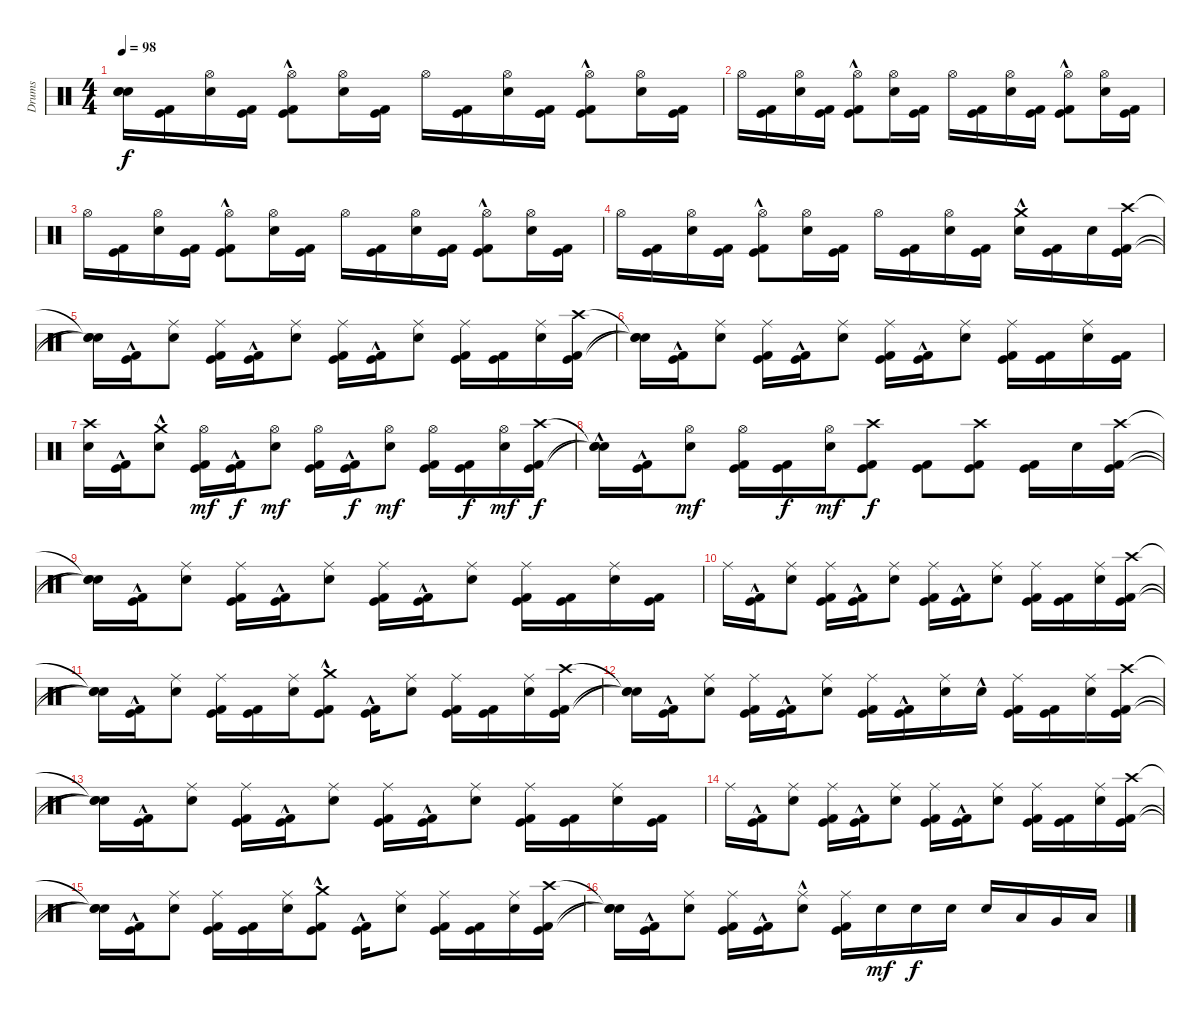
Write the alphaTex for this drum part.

\track ("Drums" "Drums") {instrument percussion}
\staff {score}
\articulation defaults
\ts (4 4)
\tempo 98
\clef neutral
\ks c
("Snare (hit)"{t} "Snare (hit)"{t} "Snare (hit)"{t}).16{dy f} ("Kick (hit)" "Kick (hit) 2").16 ("Electric Snare (hit)" "Hi-Hat (open)").16 ("Kick (hit)" "Kick (hit) 2").16 ("Kick (hit)"{hac} "Kick (hit) 2"{hac} "Hi-Hat (open)").8 ("Electric Snare (hit)" "Hi-Hat (open)").16 ("Kick (hit)" "Kick (hit) 2").16 "Hi-Hat (open)".16 ("Kick (hit)" "Kick (hit) 2").16 ("Electric Snare (hit)" "Hi-Hat (open)").16 ("Kick (hit)" "Kick (hit) 2").16 ("Kick (hit)"{hac} "Kick (hit) 2"{hac} "Hi-Hat (open)").8 ("Electric Snare (hit)" "Hi-Hat (open)").16 ("Kick (hit)" "Kick (hit) 2").16 |
"Hi-Hat (open)".16 ("Kick (hit)" "Kick (hit) 2").16 ("Electric Snare (hit)" "Hi-Hat (open)").16 ("Kick (hit)" "Kick (hit) 2").16 ("Kick (hit)"{hac} "Kick (hit) 2"{hac} "Hi-Hat (open)").8 ("Electric Snare (hit)" "Hi-Hat (open)").16 ("Kick (hit)" "Kick (hit) 2").16 "Hi-Hat (open)".16 ("Kick (hit)" "Kick (hit) 2").16 ("Electric Snare (hit)" "Hi-Hat (open)").16 ("Kick (hit)" "Kick (hit) 2").16 ("Kick (hit)"{hac} "Kick (hit) 2"{hac} "Hi-Hat (open)").8 ("Electric Snare (hit)" "Hi-Hat (open)").16 ("Kick (hit)" "Kick (hit) 2").16 |
"Hi-Hat (open)".16 ("Kick (hit)" "Kick (hit) 2").16 ("Electric Snare (hit)" "Hi-Hat (open)").16 ("Kick (hit)" "Kick (hit) 2").16 ("Kick (hit)"{hac} "Kick (hit) 2"{hac} "Hi-Hat (open)").8 ("Electric Snare (hit)" "Hi-Hat (open)").16 ("Kick (hit)" "Kick (hit) 2").16 "Hi-Hat (open)".16 ("Kick (hit)" "Kick (hit) 2").16 ("Electric Snare (hit)" "Hi-Hat (open)").16 ("Kick (hit)" "Kick (hit) 2").16 ("Kick (hit)"{hac} "Kick (hit) 2"{hac} "Hi-Hat (open)").8 ("Electric Snare (hit)" "Hi-Hat (open)").16 ("Kick (hit)" "Kick (hit) 2").16 |
"Hi-Hat (open)".16 ("Kick (hit)" "Kick (hit) 2").16 ("Electric Snare (hit)" "Hi-Hat (open)").16 ("Kick (hit)" "Kick (hit) 2").16 ("Kick (hit)"{hac} "Kick (hit) 2"{hac} "Hi-Hat (open)").8 ("Electric Snare (hit)" "Hi-Hat (open)").16 ("Kick (hit)" "Kick (hit) 2").16 "Hi-Hat (open)".16 ("Kick (hit)" "Kick (hit) 2").16 ("Electric Snare (hit)" "Hi-Hat (open)").16 ("Kick (hit)" "Kick (hit) 2").16 ("Electric Snare (hit)" "Crash medium (hit)"{hac}).16 ("Kick (hit)" "Kick (hit) 2").16 "Electric Snare (hit)".16 ("Kick (hit)" "Kick (hit) 2" "Crash high (hit)").16 |
("Snare (hit)"{t} "Snare (hit)"{t} "Snare (hit)"{t}).16 ("Kick (hit)"{hac} "Kick (hit) 2"{hac}).16 ("Electric Snare (hit)" "Ride (middle)").8 ("Kick (hit)" "Kick (hit) 2" "Ride (middle)").16 ("Kick (hit)"{hac} "Kick (hit) 2"{hac}).16 ("Electric Snare (hit)" "Ride (middle)").8 ("Kick (hit)" "Kick (hit) 2" "Ride (middle)").16 ("Kick (hit)"{hac} "Kick (hit) 2"{hac}).16 ("Electric Snare (hit)" "Ride (middle)").8 ("Kick (hit)" "Kick (hit) 2" "Ride (middle)").16 ("Kick (hit)" "Kick (hit) 2").16 ("Electric Snare (hit)" "Ride (middle)").16 ("Kick (hit)" "Kick (hit) 2" "Crash high (hit)").16 |
("Snare (hit)"{t} "Snare (hit)"{t} "Snare (hit)"{t}).16 ("Kick (hit)"{hac} "Kick (hit) 2"{hac}).16 ("Electric Snare (hit)" "Ride (middle)").8 ("Kick (hit)" "Kick (hit) 2" "Ride (middle)").16 ("Kick (hit)"{hac} "Kick (hit) 2"{hac}).16 ("Electric Snare (hit)" "Ride (middle)").8 ("Kick (hit)" "Kick (hit) 2" "Ride (middle)").16 ("Kick (hit)"{hac} "Kick (hit) 2"{hac}).16 ("Electric Snare (hit)" "Ride (middle)").8 ("Kick (hit)" "Kick (hit) 2" "Ride (middle)").16 ("Kick (hit)" "Kick (hit) 2").16 ("Electric Snare (hit)" "Ride (middle)").16 ("Kick (hit)" "Kick (hit) 2").16 |
("Electric Snare (hit)" "Crash high (hit)").16 ("Kick (hit)"{hac} "Kick (hit) 2"{hac}).16 ("Electric Snare (hit)" "Crash medium (hit)"{hac}).8 ("Kick (hit)" "Kick (hit) 2" "Hi-Hat (open)").16{dy mf} ("Kick (hit)"{hac} "Kick (hit) 2"{hac}).16{dy f} ("Electric Snare (hit)" "Hi-Hat (open)").8{dy mf} ("Kick (hit)" "Kick (hit) 2" "Hi-Hat (open)").16 ("Kick (hit)"{hac} "Kick (hit) 2"{hac}).16{dy f} ("Electric Snare (hit)" "Hi-Hat (open)").8{dy mf} ("Kick (hit)" "Kick (hit) 2" "Hi-Hat (open)").16 ("Kick (hit)" "Kick (hit) 2").16{dy f} ("Electric Snare (hit)" "Hi-Hat (open)").16{dy mf} ("Kick (hit)" "Kick (hit) 2" "Crash high (hit)").16{dy f} |
("Snare (hit)"{t} "Snare (hit)"{t} "Snare (hit)"{hac t}).16 ("Kick (hit)"{hac} "Kick (hit) 2"{hac}).16 ("Electric Snare (hit)" "Hi-Hat (open)").8{dy mf} ("Kick (hit)" "Kick (hit) 2" "Hi-Hat (open)").16 ("Kick (hit)" "Kick (hit) 2").16{dy f} ("Electric Snare (hit)" "Hi-Hat (open)").16{dy mf} ("Kick (hit)" "Kick (hit) 2" "Crash high (hit)").8{dy f} ("Kick (hit)" "Kick (hit) 2").8 ("Kick (hit)" "Kick (hit) 2" "Crash high (hit)").8 ("Kick (hit)" "Kick (hit) 2").16 "Electric Snare (hit)".16 ("Kick (hit)" "Kick (hit) 2" "Crash high (hit)").16 |
("Snare (hit)"{t} "Snare (hit)"{t} "Snare (hit)"{t}).16 ("Kick (hit)"{hac} "Kick (hit) 2"{hac}).16 ("Electric Snare (hit)" "Ride (middle)").8 ("Kick (hit)" "Kick (hit) 2" "Ride (middle)").16 ("Kick (hit)"{hac} "Kick (hit) 2"{hac}).16 ("Electric Snare (hit)" "Ride (middle)").8 ("Kick (hit)" "Kick (hit) 2" "Ride (middle)").16 ("Kick (hit)"{hac} "Kick (hit) 2"{hac}).16 ("Electric Snare (hit)" "Ride (middle)").8 ("Kick (hit)" "Kick (hit) 2" "Ride (middle)").16 ("Kick (hit)" "Kick (hit) 2").16 ("Electric Snare (hit)" "Ride (middle)").16 ("Kick (hit)" "Kick (hit) 2").16 |
"Ride (middle)".16 ("Kick (hit)"{hac} "Kick (hit) 2"{hac}).16 ("Electric Snare (hit)" "Ride (middle)").8 ("Kick (hit)" "Kick (hit) 2" "Ride (middle)").16 ("Kick (hit)"{hac} "Kick (hit) 2"{hac}).16 ("Electric Snare (hit)" "Ride (middle)").8 ("Kick (hit)" "Kick (hit) 2" "Ride (middle)").16 ("Kick (hit)"{hac} "Kick (hit) 2"{hac}).16 ("Electric Snare (hit)" "Ride (middle)").8 ("Kick (hit)" "Kick (hit) 2" "Ride (middle)").16 ("Kick (hit)" "Kick (hit) 2").16 ("Electric Snare (hit)" "Ride (middle)").16 ("Kick (hit)" "Kick (hit) 2" "Crash high (hit)").16 |
("Snare (hit)"{t} "Snare (hit)"{t} "Snare (hit)"{t}).16 ("Kick (hit)"{hac} "Kick (hit) 2"{hac}).16 ("Electric Snare (hit)" "Ride (middle)").8 ("Kick (hit)" "Kick (hit) 2" "Ride (middle)").16 ("Kick (hit)" "Kick (hit) 2").16 ("Electric Snare (hit)" "Ride (middle)").16 ("Kick (hit)" "Kick (hit) 2" "Crash medium (hit)"{hac}).8 ("Kick (hit)"{hac} "Kick (hit) 2"{hac}).16 ("Electric Snare (hit)" "Ride (middle)").8 ("Kick (hit)" "Kick (hit) 2" "Ride (middle)").16 ("Kick (hit)" "Kick (hit) 2").16 ("Electric Snare (hit)" "Ride (middle)").16 ("Kick (hit)" "Kick (hit) 2" "Crash high (hit)").16 |
("Snare (hit)"{t} "Snare (hit)"{t} "Snare (hit)"{t}).16 ("Kick (hit)"{hac} "Kick (hit) 2"{hac}).16 ("Electric Snare (hit)" "Ride (middle)").8 ("Kick (hit)" "Kick (hit) 2" "Ride (middle)").16 ("Kick (hit)"{hac} "Kick (hit) 2"{hac}).16 ("Electric Snare (hit)" "Ride (middle)").8 ("Kick (hit)" "Kick (hit) 2" "Ride (middle)").16 ("Kick (hit)"{hac} "Kick (hit) 2"{hac}).16 ("Electric Snare (hit)" "Ride (middle)").16 "Electric Snare (hit)"{hac}.16 ("Kick (hit)" "Kick (hit) 2" "Ride (middle)").16 ("Kick (hit)" "Kick (hit) 2").16 ("Electric Snare (hit)" "Ride (middle)").16 ("Kick (hit)" "Kick (hit) 2" "Crash high (hit)").16 |
("Snare (hit)"{t} "Snare (hit)"{t} "Snare (hit)"{t}).16 ("Kick (hit)"{hac} "Kick (hit) 2"{hac}).16 ("Electric Snare (hit)" "Ride (middle)").8 ("Kick (hit)" "Kick (hit) 2" "Ride (middle)").16 ("Kick (hit)"{hac} "Kick (hit) 2"{hac}).16 ("Electric Snare (hit)" "Ride (middle)").8 ("Kick (hit)" "Kick (hit) 2" "Ride (middle)").16 ("Kick (hit)"{hac} "Kick (hit) 2"{hac}).16 ("Electric Snare (hit)" "Ride (middle)").8 ("Kick (hit)" "Kick (hit) 2" "Ride (middle)").16 ("Kick (hit)" "Kick (hit) 2").16 ("Electric Snare (hit)" "Ride (middle)").16 ("Kick (hit)" "Kick (hit) 2").16 |
"Ride (middle)".16 ("Kick (hit)"{hac} "Kick (hit) 2"{hac}).16 ("Electric Snare (hit)" "Ride (middle)").8 ("Kick (hit)" "Kick (hit) 2" "Ride (middle)").16 ("Kick (hit)"{hac} "Kick (hit) 2"{hac}).16 ("Electric Snare (hit)" "Ride (middle)").8 ("Kick (hit)" "Kick (hit) 2" "Ride (middle)").16 ("Kick (hit)"{hac} "Kick (hit) 2"{hac}).16 ("Electric Snare (hit)" "Ride (middle)").8 ("Kick (hit)" "Kick (hit) 2" "Ride (middle)").16 ("Kick (hit)" "Kick (hit) 2").16 ("Electric Snare (hit)" "Ride (middle)").16 ("Kick (hit)" "Kick (hit) 2" "Crash high (hit)").16 |
("Snare (hit)"{t} "Snare (hit)"{t} "Snare (hit)"{t}).16 ("Kick (hit)"{hac} "Kick (hit) 2"{hac}).16 ("Electric Snare (hit)" "Ride (middle)").8 ("Kick (hit)" "Kick (hit) 2" "Ride (middle)").16 ("Kick (hit)" "Kick (hit) 2").16 ("Electric Snare (hit)" "Ride (middle)").16 ("Kick (hit)" "Kick (hit) 2" "Crash medium (hit)"{hac}).8 ("Kick (hit)"{hac} "Kick (hit) 2"{hac}).16 ("Electric Snare (hit)" "Ride (middle)").8 ("Kick (hit)" "Kick (hit) 2" "Ride (middle)").16 ("Kick (hit)" "Kick (hit) 2").16 ("Electric Snare (hit)" "Ride (middle)").16 ("Kick (hit)" "Kick (hit) 2" "Crash high (hit)").16 |
("Snare (hit)"{t} "Snare (hit)"{t} "Snare (hit)"{t}).16 ("Kick (hit)"{hac} "Kick (hit) 2"{hac}).16 ("Electric Snare (hit)" "Ride (middle)").8 ("Kick (hit)" "Kick (hit) 2" "Ride (middle)").16 ("Kick (hit)"{hac} "Kick (hit) 2"{hac}).16 ("Electric Snare (hit)"{hac} "Ride (middle)").8 ("Kick (hit)" "Kick (hit) 2" "Ride (middle)").16 "Electric Snare (hit)".16{dy mf} "Electric Snare (hit)".16{dy f} "Electric Snare (hit)".16 "Electric Snare (hit)".16 "Low Tom (hit)".16 "Very Low Tom (hit)".16 "Low Floor Tom (hit)".16
